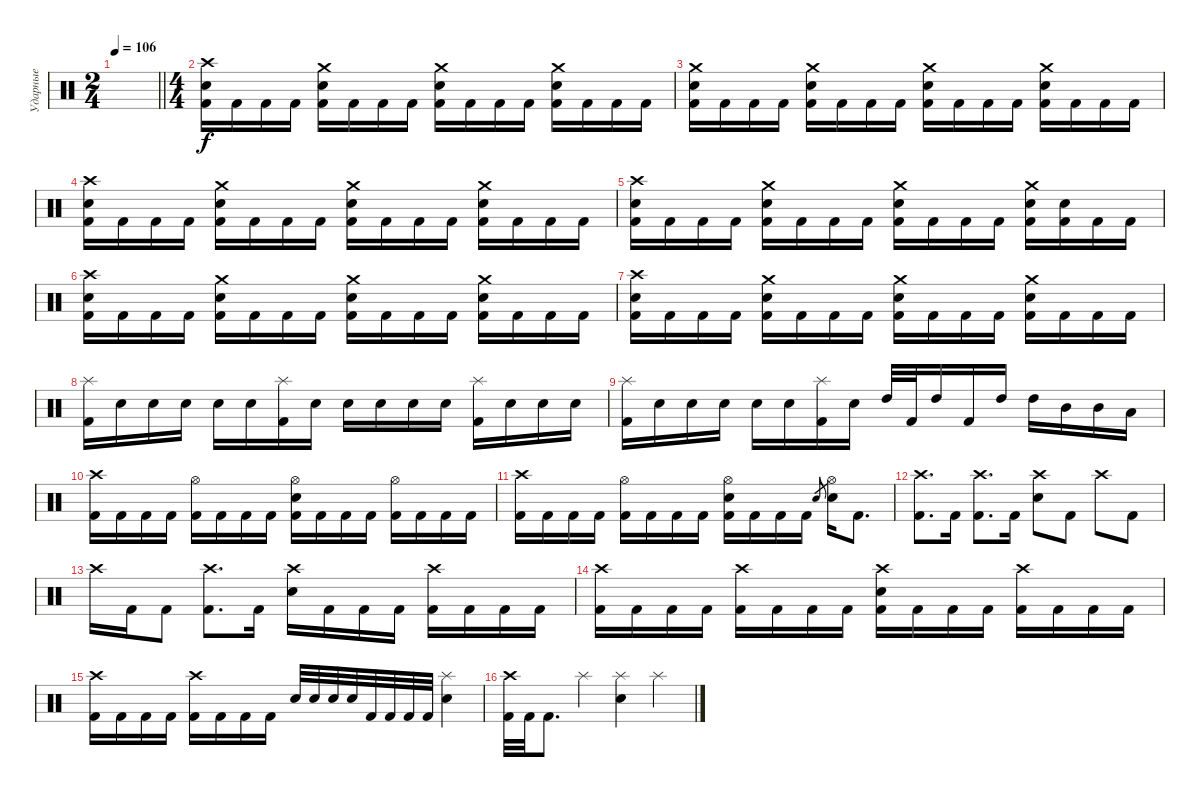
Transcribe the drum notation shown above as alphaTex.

\track ("Ударные" "Ударные") {instrument percussion}
\staff {score}
\articulation defaults
\ts (2 4)
\tempo 106
\clef neutral
\barLineRight lightlight
\ks c
|
\ts (4 4)
("Crash high (hit)" "Electric Snare (hit)" "Kick (hit) 2").16 "Kick (hit) 2".16 "Kick (hit) 2".16 "Kick (hit) 2".16 ("Crash medium (hit)" "Electric Snare (hit)" "Kick (hit) 2").16 "Kick (hit) 2".16 "Kick (hit) 2".16 "Kick (hit) 2".16 ("Crash medium (hit)" "Electric Snare (hit)" "Kick (hit) 2").16 "Kick (hit) 2".16 "Kick (hit) 2".16 "Kick (hit) 2".16 ("Crash medium (hit)" "Electric Snare (hit)" "Kick (hit) 2").16 "Kick (hit) 2".16 "Kick (hit) 2".16 "Kick (hit) 2".16 |
("Crash medium (hit)" "Electric Snare (hit)" "Kick (hit) 2").16 "Kick (hit) 2".16 "Kick (hit) 2".16 "Kick (hit) 2".16 ("Crash medium (hit)" "Electric Snare (hit)" "Kick (hit) 2").16 "Kick (hit) 2".16 "Kick (hit) 2".16 "Kick (hit) 2".16 ("Crash medium (hit)" "Electric Snare (hit)" "Kick (hit) 2").16 "Kick (hit) 2".16 "Kick (hit) 2".16 "Kick (hit) 2".16 ("Crash medium (hit)" "Electric Snare (hit)" "Kick (hit) 2").16 "Kick (hit) 2".16 "Kick (hit) 2".16 "Kick (hit) 2".16 |
("Crash high (hit)" "Electric Snare (hit)" "Kick (hit) 2").16 "Kick (hit) 2".16 "Kick (hit) 2".16 "Kick (hit) 2".16 ("Crash medium (hit)" "Electric Snare (hit)" "Kick (hit) 2").16 "Kick (hit) 2".16 "Kick (hit) 2".16 "Kick (hit) 2".16 ("Crash medium (hit)" "Electric Snare (hit)" "Kick (hit) 2").16 "Kick (hit) 2".16 "Kick (hit) 2".16 "Kick (hit) 2".16 ("Crash medium (hit)" "Electric Snare (hit)" "Kick (hit) 2").16 "Kick (hit) 2".16 "Kick (hit) 2".16 "Kick (hit) 2".16 |
("Crash high (hit)" "Electric Snare (hit)" "Kick (hit) 2").16 "Kick (hit) 2".16 "Kick (hit) 2".16 "Kick (hit) 2".16 ("Crash medium (hit)" "Electric Snare (hit)" "Kick (hit) 2").16 "Kick (hit) 2".16 "Kick (hit) 2".16 "Kick (hit) 2".16 ("Crash medium (hit)" "Electric Snare (hit)" "Kick (hit) 2").16 "Kick (hit) 2".16 "Kick (hit) 2".16 "Kick (hit) 2".16 ("Crash medium (hit)" "Electric Snare (hit)" "Kick (hit) 2").16 ("Electric Snare (hit)" "Kick (hit) 2").16 "Kick (hit) 2".16 "Kick (hit) 2".16 |
("Crash high (hit)" "Electric Snare (hit)" "Kick (hit) 2").16 "Kick (hit) 2".16 "Kick (hit) 2".16 "Kick (hit) 2".16 ("Crash medium (hit)" "Electric Snare (hit)" "Kick (hit) 2").16 "Kick (hit) 2".16 "Kick (hit) 2".16 "Kick (hit) 2".16 ("Crash medium (hit)" "Electric Snare (hit)" "Kick (hit) 2").16 "Kick (hit) 2".16 "Kick (hit) 2".16 "Kick (hit) 2".16 ("Crash medium (hit)" "Electric Snare (hit)" "Kick (hit) 2").16 "Kick (hit) 2".16 "Kick (hit) 2".16 "Kick (hit) 2".16 |
("Crash high (hit)" "Electric Snare (hit)" "Kick (hit) 2").16 "Kick (hit) 2".16 "Kick (hit) 2".16 "Kick (hit) 2".16 ("Crash medium (hit)" "Electric Snare (hit)" "Kick (hit) 2").16 "Kick (hit) 2".16 "Kick (hit) 2".16 "Kick (hit) 2".16 ("Crash medium (hit)" "Electric Snare (hit)" "Kick (hit) 2").16 "Kick (hit) 2".16 "Kick (hit) 2".16 "Kick (hit) 2".16 ("Crash medium (hit)" "Electric Snare (hit)" "Kick (hit) 2").16 "Kick (hit) 2".16 "Kick (hit) 2".16 "Kick (hit) 2".16 |
("Splash (hit)" "Kick (hit) 2").16 "Electric Snare (hit)".16 "Electric Snare (hit)".16 "Electric Snare (hit)".16 "Electric Snare (hit)".16 "Electric Snare (hit)".16 ("Splash (hit)" "Kick (hit) 2").16 "Electric Snare (hit)".16 "Electric Snare (hit)".16 "Electric Snare (hit)".16 "Electric Snare (hit)".16 "Electric Snare (hit)".16 ("Splash (hit)" "Kick (hit) 2").16 "Electric Snare (hit)".16 "Electric Snare (hit)".16 "Electric Snare (hit)".16 |
("Splash (hit)" "Kick (hit) 2").16 "Electric Snare (hit)".16 "Electric Snare (hit)".16 "Electric Snare (hit)".16 "Electric Snare (hit)".16 "Electric Snare (hit)".16 ("Splash (hit)" "Kick (hit) 2").16 "Electric Snare (hit)".16 "High Tom (hit)".32 "Kick (hit) 2".32 "High Tom (hit)".16 "Kick (hit) 2".16 "High Tom (hit)".16 "High Tom (hit)".16 "Mid Tom (hit)".16 "Mid Tom (hit)".16 "Low Tom (hit)".16 |
("Crash high (hit)" "Kick (hit) 2").16 "Kick (hit) 2".16 "Kick (hit) 2".16 "Kick (hit) 2".16 ("Hi-Hat (open)" "Kick (hit) 2").16 "Kick (hit) 2".16 "Kick (hit) 2".16 "Kick (hit) 2".16 ("Hi-Hat (open)" "Electric Snare (hit)" "Kick (hit) 2").16 "Kick (hit) 2".16 "Kick (hit) 2".16 "Kick (hit) 2".16 ("Hi-Hat (open)" "Kick (hit) 2").16 "Kick (hit) 2".16 "Kick (hit) 2".16 "Kick (hit) 2".16 |
("Crash high (hit)" "Kick (hit) 2").16 "Kick (hit) 2".16 "Kick (hit) 2".16 "Kick (hit) 2".16 ("Hi-Hat (open)" "Kick (hit) 2").16 "Kick (hit) 2".16 "Kick (hit) 2".16 "Kick (hit) 2".16 ("Hi-Hat (open)" "Electric Snare (hit)" "Kick (hit) 2").16 "Kick (hit) 2".16 "Kick (hit) 2".16 "Kick (hit) 2".16 "Electric Snare (hit)".8{gr} ("Hi-Hat (open)" "Electric Snare (hit)").16 "Kick (hit) 2".8{d} |
("Crash high (hit)" "Kick (hit) 2").8{d} "Kick (hit) 2".16 ("Crash high (hit)" "Kick (hit) 2").8{d} "Kick (hit) 2".16 ("Crash high (hit)" "Electric Snare (hit)").8 "Kick (hit) 2".8 "Crash high (hit)".8 "Kick (hit) 2".8 |
"Crash high (hit)".16 "Kick (hit) 2".16 "Kick (hit) 2".8 ("Crash high (hit)" "Kick (hit) 2").8{d} "Kick (hit) 2".16 ("Crash high (hit)" "Electric Snare (hit)").16 "Kick (hit) 2".16 "Kick (hit) 2".16 "Kick (hit) 2".16 ("Crash high (hit)" "Kick (hit) 2").16 "Kick (hit) 2".16 "Kick (hit) 2".16 "Kick (hit) 2".16 |
("Crash high (hit)" "Kick (hit) 2").16 "Kick (hit) 2".16 "Kick (hit) 2".16 "Kick (hit) 2".16 ("Crash high (hit)" "Kick (hit) 2").16 "Kick (hit) 2".16 "Kick (hit) 2".16 "Kick (hit) 2".16 ("Crash high (hit)" "Electric Snare (hit)" "Kick (hit) 2").16 "Kick (hit) 2".16 "Kick (hit) 2".16 "Kick (hit) 2".16 ("Crash high (hit)" "Kick (hit) 2").16 "Kick (hit) 2".16 "Kick (hit) 2".16 "Kick (hit) 2".16 |
("Crash high (hit)" "Kick (hit) 2").16 "Kick (hit) 2".16 "Kick (hit) 2".16 "Kick (hit) 2".16 ("Crash high (hit)" "Kick (hit) 2").16 "Kick (hit) 2".16 "Kick (hit) 2".16 "Kick (hit) 2".16 "Electric Snare (hit)".32 "Electric Snare (hit)".32 "Electric Snare (hit)".32 "Electric Snare (hit)".32 "Kick (hit) 2".32 "Kick (hit) 2".32 "Kick (hit) 2".32 "Kick (hit) 2".32 ("Splash (hit)" "Electric Snare (hit)").4 |
("Crash high (hit)" "Kick (hit) 2").32 "Kick (hit) 2".32 "Kick (hit) 2".8{d} "Splash (hit)".4 ("Splash (hit)" "Electric Snare (hit)").4 "Splash (hit)".4
